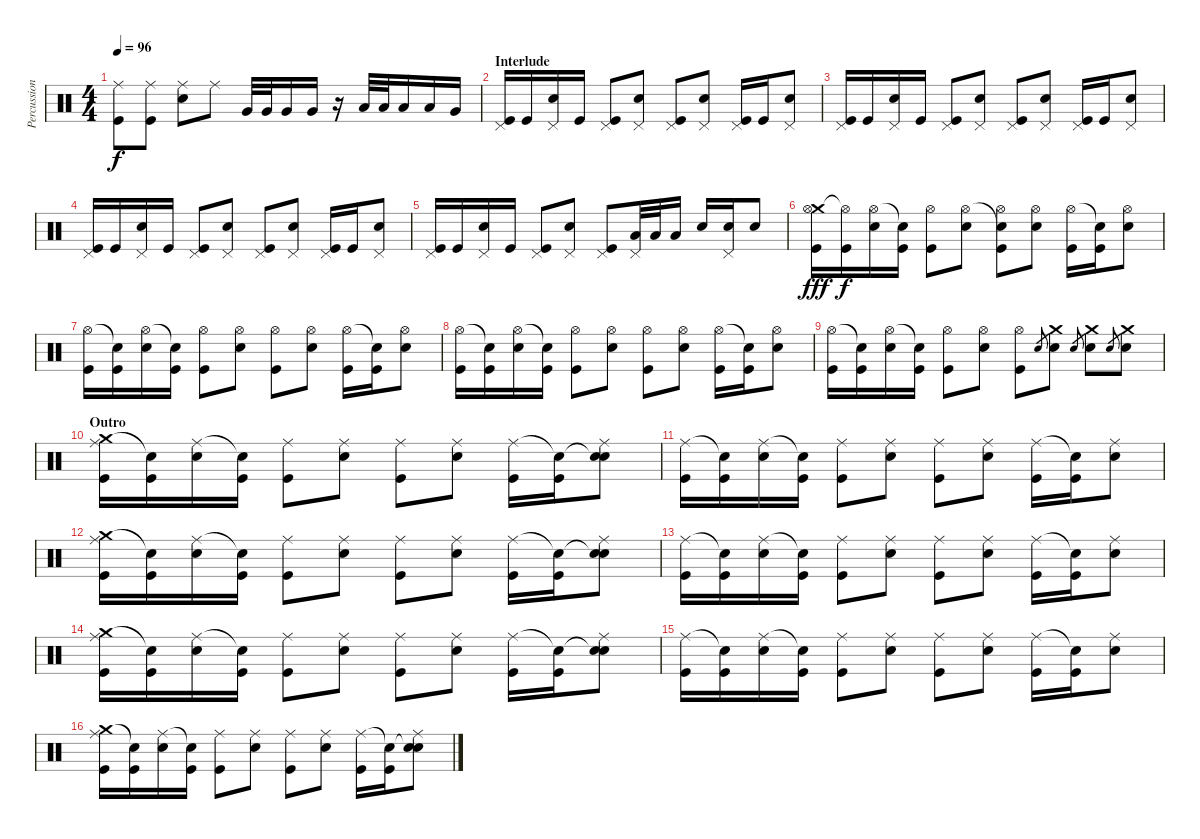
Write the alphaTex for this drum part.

\track ("Percussion" "Percussion") {instrument percussion}
\staff {score}
\articulation defaults
\ts (4 4)
\tempo 96
\clef neutral
\ks c
("Ride (middle)" "Kick (hit)").8{dy f} ("Ride (middle)" "Kick (hit)").8 ("Ride (middle)" "Electric Snare (hit)").8 "Ride (middle)".8 "Very Low Tom (hit)".32 "Very Low Tom (hit)".32 "Very Low Tom (hit)".16 "Very Low Tom (hit)".16 r.16 "Low Floor Tom (hit)".32 "Low Floor Tom (hit)".32 "Low Floor Tom (hit)".16 "Low Floor Tom (hit)".16 "Very Low Tom (hit)".16 |
\section ("" "Interlude")
("Kick (hit)" "Pedal Hi-Hat (hit)").16 "Kick (hit)".16 ("Electric Snare (hit)" "Pedal Hi-Hat (hit)").16 "Kick (hit)".16 ("Kick (hit)" "Pedal Hi-Hat (hit)").8 ("Electric Snare (hit)" "Pedal Hi-Hat (hit)").8 ("Kick (hit)" "Pedal Hi-Hat (hit)").8 ("Electric Snare (hit)" "Pedal Hi-Hat (hit)").8 ("Kick (hit)" "Pedal Hi-Hat (hit)").16 "Kick (hit)".16 ("Electric Snare (hit)" "Pedal Hi-Hat (hit)").8 |
("Kick (hit)" "Pedal Hi-Hat (hit)").16 "Kick (hit)".16 ("Electric Snare (hit)" "Pedal Hi-Hat (hit)").16 "Kick (hit)".16 ("Kick (hit)" "Pedal Hi-Hat (hit)").8 ("Electric Snare (hit)" "Pedal Hi-Hat (hit)").8 ("Kick (hit)" "Pedal Hi-Hat (hit)").8 ("Electric Snare (hit)" "Pedal Hi-Hat (hit)").8 ("Kick (hit)" "Pedal Hi-Hat (hit)").16 "Kick (hit)".16 ("Electric Snare (hit)" "Pedal Hi-Hat (hit)").8 |
("Kick (hit)" "Pedal Hi-Hat (hit)").16 "Kick (hit)".16 ("Electric Snare (hit)" "Pedal Hi-Hat (hit)").16 "Kick (hit)".16 ("Kick (hit)" "Pedal Hi-Hat (hit)").8 ("Electric Snare (hit)" "Pedal Hi-Hat (hit)").8 ("Kick (hit)" "Pedal Hi-Hat (hit)").8 ("Electric Snare (hit)" "Pedal Hi-Hat (hit)").8 ("Kick (hit)" "Pedal Hi-Hat (hit)").16 "Kick (hit)".16 ("Electric Snare (hit)" "Pedal Hi-Hat (hit)").8 |
("Kick (hit)" "Pedal Hi-Hat (hit)").16 "Kick (hit)".16 ("Electric Snare (hit)" "Pedal Hi-Hat (hit)").16 "Kick (hit)".16 ("Kick (hit)" "Pedal Hi-Hat (hit)").8 ("Electric Snare (hit)" "Pedal Hi-Hat (hit)").8 ("Kick (hit)" "Pedal Hi-Hat (hit)").8 ("Low Floor Tom (hit)" "Pedal Hi-Hat (hit)").32 "Low Floor Tom (hit)".32 "Low Floor Tom (hit)".16 "Electric Snare (hit)".16 ("Electric Snare (hit)" "Pedal Hi-Hat (hit)").16 "Electric Snare (hit)".8 |
("Kick (hit)" "Crash medium (hit)" "Hi-Hat (open)").16{dy fff} ("Kick (hit)" "Hi-Hat (open)"{t}).16{dy f} ("Electric Snare (hit)" "Hi-Hat (open)").16 ("Kick (hit)" "Snare (hit)"{t}).16 ("Kick (hit)" "Hi-Hat (open)").8 ("Electric Snare (hit)" "Hi-Hat (open)").8 ("Kick (hit)" "Snare (hit)"{t} "Hi-Hat (open)").8 ("Electric Snare (hit)" "Hi-Hat (open)").8 ("Kick (hit)" "Hi-Hat (open)").16 ("Kick (hit)" "Snare (hit)"{t}).16 ("Electric Snare (hit)" "Hi-Hat (open)").8 |
("Kick (hit)" "Hi-Hat (open)").16 ("Kick (hit)" "Snare (hit)"{t}).16 ("Electric Snare (hit)" "Hi-Hat (open)").16 ("Kick (hit)" "Snare (hit)"{t}).16 ("Kick (hit)" "Hi-Hat (open)").8 ("Electric Snare (hit)" "Hi-Hat (open)").8 ("Kick (hit)" "Hi-Hat (open)").8 ("Electric Snare (hit)" "Hi-Hat (open)").8 ("Kick (hit)" "Hi-Hat (open)").16 ("Kick (hit)" "Snare (hit)"{t}).16 ("Electric Snare (hit)" "Hi-Hat (open)").8 |
("Kick (hit)" "Hi-Hat (open)").16 ("Kick (hit)" "Snare (hit)"{t}).16 ("Electric Snare (hit)" "Hi-Hat (open)").16 ("Kick (hit)" "Snare (hit)"{t}).16 ("Kick (hit)" "Hi-Hat (open)").8 ("Electric Snare (hit)" "Hi-Hat (open)").8 ("Kick (hit)" "Hi-Hat (open)").8 ("Electric Snare (hit)" "Hi-Hat (open)").8 ("Kick (hit)" "Hi-Hat (open)").16 ("Kick (hit)" "Snare (hit)"{t}).16 ("Electric Snare (hit)" "Hi-Hat (open)").8 |
("Kick (hit)" "Hi-Hat (open)").16 ("Kick (hit)" "Snare (hit)"{t}).16 ("Electric Snare (hit)" "Hi-Hat (open)").16 ("Kick (hit)" "Snare (hit)"{t}).16 ("Kick (hit)" "Hi-Hat (open)").8 ("Electric Snare (hit)" "Hi-Hat (open)").8 ("Kick (hit)" "Hi-Hat (open)").8 "Electric Snare (hit)".8{gr} ("Electric Snare (hit)" "Crash medium (hit)").8 "Electric Snare (hit)".8{gr} ("Electric Snare (hit)" "Crash medium (hit)").8 "Electric Snare (hit)".8{gr} ("Electric Snare (hit)" "Crash medium (hit)").8 |
\section ("" "Outro")
("Kick (hit)" "Crash medium (hit)" "Ride (middle)").16 ("Kick (hit)" "Snare (hit)"{t}).16 ("Electric Snare (hit)" "Ride (middle)").16 ("Kick (hit)" "Snare (hit)"{t}).16 ("Kick (hit)" "Ride (middle)").8 ("Electric Snare (hit)" "Ride (middle)").8 ("Kick (hit)" "Ride (middle)").8 ("Electric Snare (hit)" "Ride (middle)").8 ("Kick (hit)" "Ride (middle)").16 ("Kick (hit)" "Snare (hit)"{t}).16 ("Electric Snare (hit)" "Snare (hit)"{t} "Ride (middle)").8 |
("Kick (hit)" "Ride (middle)").16 ("Kick (hit)" "Snare (hit)"{t}).16 ("Electric Snare (hit)" "Ride (middle)").16 ("Kick (hit)" "Snare (hit)"{t}).16 ("Kick (hit)" "Ride (middle)").8 ("Electric Snare (hit)" "Ride (middle)").8 ("Kick (hit)" "Ride (middle)").8 ("Electric Snare (hit)" "Ride (middle)").8 ("Kick (hit)" "Ride (middle)").16 ("Kick (hit)" "Snare (hit)"{t}).16 ("Electric Snare (hit)" "Ride (middle)").8 |
("Kick (hit)" "Crash medium (hit)" "Ride (middle)").16 ("Kick (hit)" "Snare (hit)"{t}).16 ("Electric Snare (hit)" "Ride (middle)").16 ("Kick (hit)" "Snare (hit)"{t}).16 ("Kick (hit)" "Ride (middle)").8 ("Electric Snare (hit)" "Ride (middle)").8 ("Kick (hit)" "Ride (middle)").8 ("Electric Snare (hit)" "Ride (middle)").8 ("Kick (hit)" "Ride (middle)").16 ("Kick (hit)" "Snare (hit)"{t}).16 ("Electric Snare (hit)" "Snare (hit)"{t} "Ride (middle)").8 |
("Kick (hit)" "Ride (middle)").16 ("Kick (hit)" "Snare (hit)"{t}).16 ("Electric Snare (hit)" "Ride (middle)").16 ("Kick (hit)" "Snare (hit)"{t}).16 ("Kick (hit)" "Ride (middle)").8 ("Electric Snare (hit)" "Ride (middle)").8 ("Kick (hit)" "Ride (middle)").8 ("Electric Snare (hit)" "Ride (middle)").8 ("Kick (hit)" "Ride (middle)").16 ("Kick (hit)" "Snare (hit)"{t}).16 ("Electric Snare (hit)" "Ride (middle)").8 |
("Kick (hit)" "Crash medium (hit)" "Ride (middle)").16 ("Kick (hit)" "Snare (hit)"{t}).16 ("Electric Snare (hit)" "Ride (middle)").16 ("Kick (hit)" "Snare (hit)"{t}).16 ("Kick (hit)" "Ride (middle)").8 ("Electric Snare (hit)" "Ride (middle)").8 ("Kick (hit)" "Ride (middle)").8 ("Electric Snare (hit)" "Ride (middle)").8 ("Kick (hit)" "Ride (middle)").16 ("Kick (hit)" "Snare (hit)"{t}).16 ("Electric Snare (hit)" "Snare (hit)"{t} "Ride (middle)").8 |
("Kick (hit)" "Ride (middle)").16 ("Kick (hit)" "Snare (hit)"{t}).16 ("Electric Snare (hit)" "Ride (middle)").16 ("Kick (hit)" "Snare (hit)"{t}).16 ("Kick (hit)" "Ride (middle)").8 ("Electric Snare (hit)" "Ride (middle)").8 ("Kick (hit)" "Ride (middle)").8 ("Electric Snare (hit)" "Ride (middle)").8 ("Kick (hit)" "Ride (middle)").16 ("Kick (hit)" "Snare (hit)"{t}).16 ("Electric Snare (hit)" "Ride (middle)").8 |
("Kick (hit)" "Crash medium (hit)" "Ride (middle)").16 ("Kick (hit)" "Snare (hit)"{t}).16 ("Electric Snare (hit)" "Ride (middle)").16 ("Kick (hit)" "Snare (hit)"{t}).16 ("Kick (hit)" "Ride (middle)").8 ("Electric Snare (hit)" "Ride (middle)").8 ("Kick (hit)" "Ride (middle)").8 ("Electric Snare (hit)" "Ride (middle)").8 ("Kick (hit)" "Ride (middle)").16 ("Kick (hit)" "Snare (hit)"{t}).16 ("Electric Snare (hit)" "Snare (hit)"{t} "Ride (middle)").8
